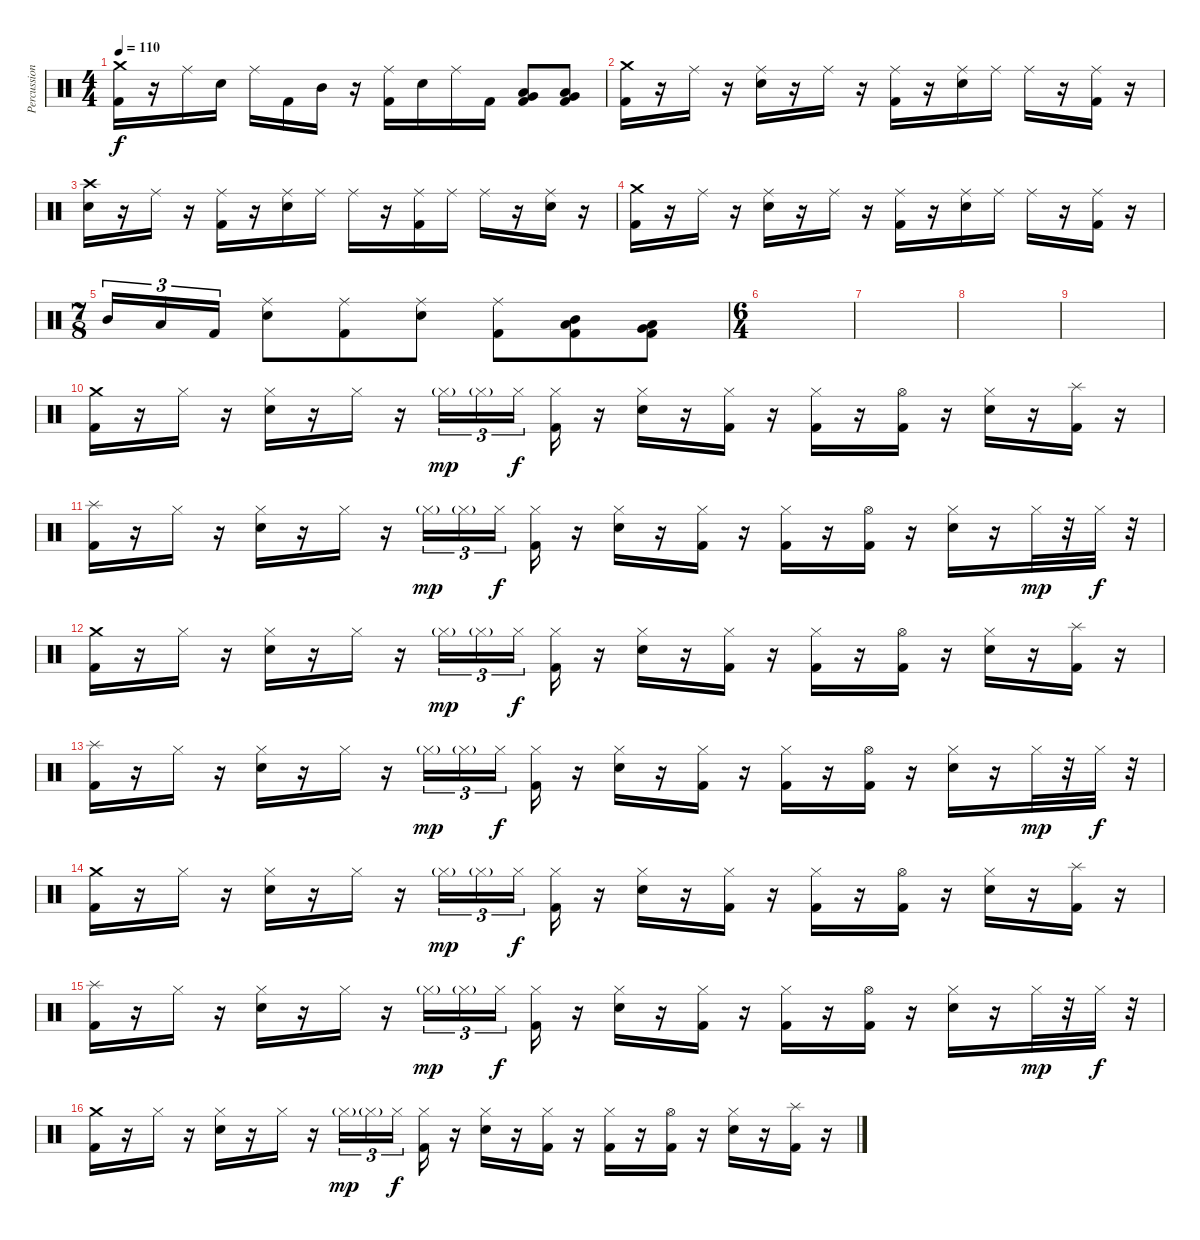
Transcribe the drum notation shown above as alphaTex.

\track ("Percussion" "Percussion") {instrument percussion}
\staff {score}
\articulation defaults
\ts (4 4)
\tempo 110
\clef neutral
\ks c
("Crash medium (hit)" "Kick (hit) 2").16{dy f} r.16 "Ride (middle)".16 "Electric Snare (hit)".16 "Ride (middle)".16 "Kick (hit) 2".16 "Mid Tom (hit)".16 r.16 ("Ride (middle)" "Kick (hit) 2").16 "Electric Snare (hit)".16 "Ride (middle)".16 "Kick (hit) 2".16 ("Kick (hit) 2" "Very Low Tom (hit)" "Low Tom (hit)").8 ("Kick (hit) 2" "Very Low Tom (hit)" "Low Floor Tom (hit)").8 |
("Crash medium (hit)" "Kick (hit) 2").16 r.16 "Ride (middle)".16 r.16 ("Ride (middle)" "Electric Snare (hit)").16 r.16 "Ride (middle)".16 r.16 ("Ride (middle)" "Kick (hit) 2").16 r.16 ("Ride (middle)" "Electric Snare (hit)").16 "Ride (middle)".16 "Ride (middle)".16 r.16 ("Ride (middle)" "Kick (hit) 2").16 r.16 |
("Crash high (hit)" "Electric Snare (hit)").16 r.16 "Ride (middle)".16 r.16 ("Ride (middle)" "Kick (hit) 2").16 r.16 ("Ride (middle)" "Electric Snare (hit)").16 "Ride (middle)".16 "Ride (middle)".16 r.16 ("Ride (middle)" "Kick (hit) 2").16 "Ride (middle)".16 "Ride (middle)".16 r.16 ("Ride (middle)" "Electric Snare (hit)").16 r.16 |
("Crash medium (hit)" "Kick (hit) 2").16 r.16 "Ride (middle)".16 r.16 ("Ride (middle)" "Electric Snare (hit)").16 r.16 "Ride (middle)".16 r.16 ("Ride (middle)" "Kick (hit) 2").16 r.16 ("Ride (middle)" "Electric Snare (hit)").16 "Ride (middle)".16 "Ride (middle)".16 r.16 ("Ride (middle)" "Kick (hit) 2").16 r.16 |
\ts (7 8)
"Mid Tom (hit)".16{tu (3 2)} "Low Tom (hit)".16{tu (3 2)} "Kick (hit) 2".16{tu (3 2)} ("Ride (middle)" "Electric Snare (hit)").8 ("Ride (middle)" "Kick (hit) 2").8 ("Ride (middle)" "Electric Snare (hit)").8 ("Ride (middle)" "Kick (hit) 2").8 ("Mid Tom (hit)" "Low Tom (hit)" "Kick (hit) 2").8 ("Low Tom (hit)" "Very Low Tom (hit)" "Kick (hit) 2").8 |
\ts (6 4)
|
|
|
|
("Crash medium (hit)" "Kick (hit) 2").16 r.16 "Hi-Hat (closed)".16 r.16 ("Hi-Hat (closed)" "Electric Snare (hit)").16 r.16 "Hi-Hat (closed)".16 r.16 "Hi-Hat (closed)"{g}.16{tu (3 2) dy mp} "Hi-Hat (closed)"{g}.16{tu (3 2)} "Hi-Hat (closed)".16{tu (3 2) dy f beam splitsecondary} ("Hi-Hat (closed)" "Kick (hit) 2").16 r.16 ("Hi-Hat (closed)" "Electric Snare (hit)").16 r.16 ("Hi-Hat (closed)" "Kick (hit) 2").16 r.16 ("Hi-Hat (closed)" "Kick (hit) 2").16 r.16 ("Hi-Hat (open)" "Kick (hit) 2").16 r.16 ("Hi-Hat (closed)" "Electric Snare (hit)").16 r.16 ("Splash (hit)" "Kick (hit) 2").16 r.16 |
("Splash (hit)" "Kick (hit) 2").16 r.16 "Hi-Hat (closed)".16 r.16 ("Hi-Hat (closed)" "Electric Snare (hit)").16 r.16 "Hi-Hat (closed)".16 r.16 "Hi-Hat (closed)"{g}.16{tu (3 2) dy mp} "Hi-Hat (closed)"{g}.16{tu (3 2)} "Hi-Hat (closed)".16{tu (3 2) dy f beam splitsecondary} ("Hi-Hat (closed)" "Kick (hit) 2").16 r.16 ("Hi-Hat (closed)" "Electric Snare (hit)").16 r.16 ("Hi-Hat (closed)" "Kick (hit) 2").16 r.16 ("Hi-Hat (closed)" "Kick (hit) 2").16 r.16 ("Hi-Hat (open)" "Kick (hit) 2").16 r.16 ("Hi-Hat (closed)" "Electric Snare (hit)").16 r.16 "Hi-Hat (closed)".32{dy mp} r.32 "Hi-Hat (closed)".32{dy f} r.32 |
("Crash medium (hit)" "Kick (hit) 2").16 r.16 "Hi-Hat (closed)".16 r.16 ("Hi-Hat (closed)" "Electric Snare (hit)").16 r.16 "Hi-Hat (closed)".16 r.16 "Hi-Hat (closed)"{g}.16{tu (3 2) dy mp} "Hi-Hat (closed)"{g}.16{tu (3 2)} "Hi-Hat (closed)".16{tu (3 2) dy f beam splitsecondary} ("Hi-Hat (closed)" "Kick (hit) 2").16 r.16 ("Hi-Hat (closed)" "Electric Snare (hit)").16 r.16 ("Hi-Hat (closed)" "Kick (hit) 2").16 r.16 ("Hi-Hat (closed)" "Kick (hit) 2").16 r.16 ("Hi-Hat (open)" "Kick (hit) 2").16 r.16 ("Hi-Hat (closed)" "Electric Snare (hit)").16 r.16 ("Splash (hit)" "Kick (hit) 2").16 r.16 |
("Splash (hit)" "Kick (hit) 2").16 r.16 "Hi-Hat (closed)".16 r.16 ("Hi-Hat (closed)" "Electric Snare (hit)").16 r.16 "Hi-Hat (closed)".16 r.16 "Hi-Hat (closed)"{g}.16{tu (3 2) dy mp} "Hi-Hat (closed)"{g}.16{tu (3 2)} "Hi-Hat (closed)".16{tu (3 2) dy f beam splitsecondary} ("Hi-Hat (closed)" "Kick (hit) 2").16 r.16 ("Hi-Hat (closed)" "Electric Snare (hit)").16 r.16 ("Hi-Hat (closed)" "Kick (hit) 2").16 r.16 ("Hi-Hat (closed)" "Kick (hit) 2").16 r.16 ("Hi-Hat (open)" "Kick (hit) 2").16 r.16 ("Hi-Hat (closed)" "Electric Snare (hit)").16 r.16 "Hi-Hat (closed)".32{dy mp} r.32 "Hi-Hat (closed)".32{dy f} r.32 |
("Crash medium (hit)" "Kick (hit) 2").16 r.16 "Hi-Hat (closed)".16 r.16 ("Hi-Hat (closed)" "Electric Snare (hit)").16 r.16 "Hi-Hat (closed)".16 r.16 "Hi-Hat (closed)"{g}.16{tu (3 2) dy mp} "Hi-Hat (closed)"{g}.16{tu (3 2)} "Hi-Hat (closed)".16{tu (3 2) dy f beam splitsecondary} ("Hi-Hat (closed)" "Kick (hit) 2").16 r.16 ("Hi-Hat (closed)" "Electric Snare (hit)").16 r.16 ("Hi-Hat (closed)" "Kick (hit) 2").16 r.16 ("Hi-Hat (closed)" "Kick (hit) 2").16 r.16 ("Hi-Hat (open)" "Kick (hit) 2").16 r.16 ("Hi-Hat (closed)" "Electric Snare (hit)").16 r.16 ("Splash (hit)" "Kick (hit) 2").16 r.16 |
("Splash (hit)" "Kick (hit) 2").16 r.16 "Hi-Hat (closed)".16 r.16 ("Hi-Hat (closed)" "Electric Snare (hit)").16 r.16 "Hi-Hat (closed)".16 r.16 "Hi-Hat (closed)"{g}.16{tu (3 2) dy mp} "Hi-Hat (closed)"{g}.16{tu (3 2)} "Hi-Hat (closed)".16{tu (3 2) dy f beam splitsecondary} ("Hi-Hat (closed)" "Kick (hit) 2").16 r.16 ("Hi-Hat (closed)" "Electric Snare (hit)").16 r.16 ("Hi-Hat (closed)" "Kick (hit) 2").16 r.16 ("Hi-Hat (closed)" "Kick (hit) 2").16 r.16 ("Hi-Hat (open)" "Kick (hit) 2").16 r.16 ("Hi-Hat (closed)" "Electric Snare (hit)").16 r.16 "Hi-Hat (closed)".32{dy mp} r.32 "Hi-Hat (closed)".32{dy f} r.32 |
("Crash medium (hit)" "Kick (hit) 2").16 r.16 "Hi-Hat (closed)".16 r.16 ("Hi-Hat (closed)" "Electric Snare (hit)").16 r.16 "Hi-Hat (closed)".16 r.16 "Hi-Hat (closed)"{g}.16{tu (3 2) dy mp} "Hi-Hat (closed)"{g}.16{tu (3 2)} "Hi-Hat (closed)".16{tu (3 2) dy f beam splitsecondary} ("Hi-Hat (closed)" "Kick (hit) 2").16 r.16 ("Hi-Hat (closed)" "Electric Snare (hit)").16 r.16 ("Hi-Hat (closed)" "Kick (hit) 2").16 r.16 ("Hi-Hat (closed)" "Kick (hit) 2").16 r.16 ("Hi-Hat (open)" "Kick (hit) 2").16 r.16 ("Hi-Hat (closed)" "Electric Snare (hit)").16 r.16 ("Splash (hit)" "Kick (hit) 2").16 r.16
